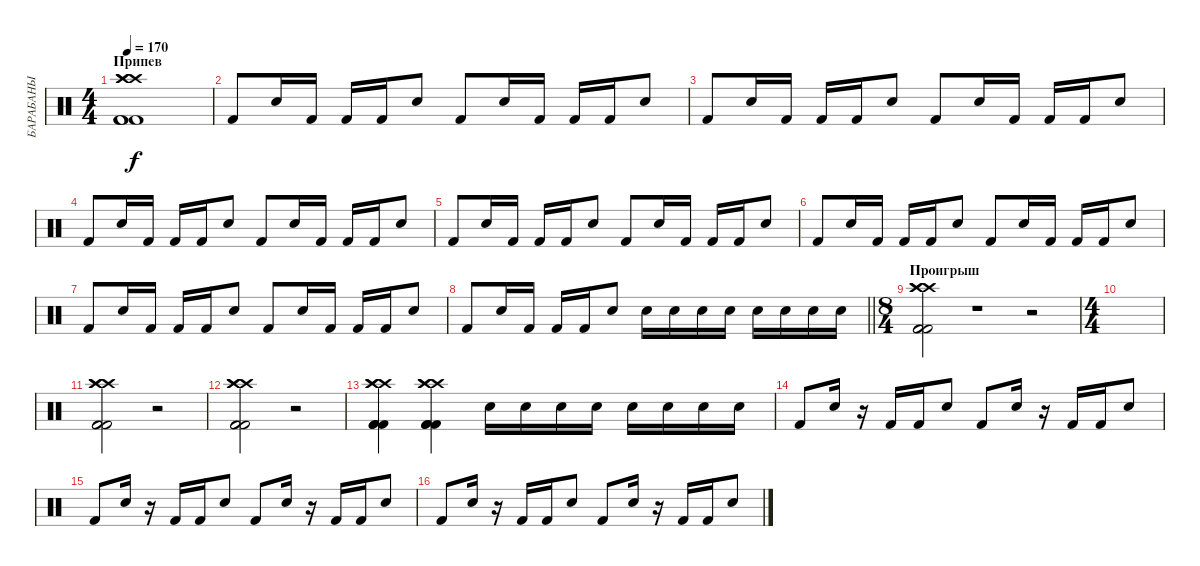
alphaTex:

\track ("БАРАБАНЫ" "БАРАБАНЫ") {instrument percussion}
\staff {score}
\articulation defaults
\ts (4 4)
\section ("" "Припев")
\tempo 170
\clef neutral
\ks c
("Kick (hit) 2" "Crash high (hit)" "Kick (hit) 2" "Crash high (hit)" "Kick (hit) 2" "Crash high (hit)").1{dy f} |
"Kick (hit) 2".8 "Electric Snare (hit)".16 "Kick (hit) 2".16 "Kick (hit) 2".16 "Kick (hit) 2".16 "Electric Snare (hit)".8 "Kick (hit) 2".8 "Electric Snare (hit)".16 "Kick (hit) 2".16 "Kick (hit) 2".16 "Kick (hit) 2".16 "Electric Snare (hit)".8 |
"Kick (hit) 2".8 "Electric Snare (hit)".16 "Kick (hit) 2".16 "Kick (hit) 2".16 "Kick (hit) 2".16 "Electric Snare (hit)".8 "Kick (hit) 2".8 "Electric Snare (hit)".16 "Kick (hit) 2".16 "Kick (hit) 2".16 "Kick (hit) 2".16 "Electric Snare (hit)".8 |
"Kick (hit) 2".8 "Electric Snare (hit)".16 "Kick (hit) 2".16 "Kick (hit) 2".16 "Kick (hit) 2".16 "Electric Snare (hit)".8 "Kick (hit) 2".8 "Electric Snare (hit)".16 "Kick (hit) 2".16 "Kick (hit) 2".16 "Kick (hit) 2".16 "Electric Snare (hit)".8 |
"Kick (hit) 2".8 "Electric Snare (hit)".16 "Kick (hit) 2".16 "Kick (hit) 2".16 "Kick (hit) 2".16 "Electric Snare (hit)".8 "Kick (hit) 2".8 "Electric Snare (hit)".16 "Kick (hit) 2".16 "Kick (hit) 2".16 "Kick (hit) 2".16 "Electric Snare (hit)".8 |
"Kick (hit) 2".8 "Electric Snare (hit)".16 "Kick (hit) 2".16 "Kick (hit) 2".16 "Kick (hit) 2".16 "Electric Snare (hit)".8 "Kick (hit) 2".8 "Electric Snare (hit)".16 "Kick (hit) 2".16 "Kick (hit) 2".16 "Kick (hit) 2".16 "Electric Snare (hit)".8 |
"Kick (hit) 2".8 "Electric Snare (hit)".16 "Kick (hit) 2".16 "Kick (hit) 2".16 "Kick (hit) 2".16 "Electric Snare (hit)".8 "Kick (hit) 2".8 "Electric Snare (hit)".16 "Kick (hit) 2".16 "Kick (hit) 2".16 "Kick (hit) 2".16 "Electric Snare (hit)".8 |
\barLineRight lightlight "Kick (hit) 2".8 "Electric Snare (hit)".16 "Kick (hit) 2".16 "Kick (hit) 2".16 "Kick (hit) 2".16 "Electric Snare (hit)".8 "Electric Snare (hit)".16 "Electric Snare (hit)".16 "Electric Snare (hit)".16 "Electric Snare (hit)".16 "Electric Snare (hit)".16 "Electric Snare (hit)".16 "Electric Snare (hit)".16 "Electric Snare (hit)".16
|
\ts (8 4)
\section ("" "Проигрыш")
("Crash high (hit)" "Kick (hit) 2" "Crash high (hit)" "Kick (hit) 2" "Crash high (hit)" "Kick (hit) 2").2 r.1 r.2 |
\ts (4 4)
|
("Crash high (hit)" "Kick (hit) 2" "Crash high (hit)" "Kick (hit) 2" "Crash high (hit)" "Kick (hit) 2").2 r.2 |
("Crash high (hit)" "Kick (hit) 2" "Crash high (hit)" "Kick (hit) 2" "Crash high (hit)" "Kick (hit) 2").2 r.2 |
("Crash high (hit)" "Kick (hit) 2" "Crash high (hit)" "Kick (hit) 2" "Crash high (hit)" "Kick (hit) 2").4 ("Crash high (hit)" "Kick (hit) 2" "Crash high (hit)" "Kick (hit) 2" "Crash high (hit)" "Kick (hit) 2").4 "Electric Snare (hit)".16 "Electric Snare (hit)".16 "Electric Snare (hit)".16 "Electric Snare (hit)".16 "Electric Snare (hit)".16 "Electric Snare (hit)".16 "Electric Snare (hit)".16 "Electric Snare (hit)".16 |
"Kick (hit) 2".8 "Electric Snare (hit)".16 r.16 "Kick (hit) 2".16 "Kick (hit) 2".16 "Electric Snare (hit)".8 "Kick (hit) 2".8 "Electric Snare (hit)".16 r.16 "Kick (hit) 2".16 "Kick (hit) 2".16 "Electric Snare (hit)".8 |
"Kick (hit) 2".8 "Electric Snare (hit)".16 r.16 "Kick (hit) 2".16 "Kick (hit) 2".16 "Electric Snare (hit)".8 "Kick (hit) 2".8 "Electric Snare (hit)".16 r.16 "Kick (hit) 2".16 "Kick (hit) 2".16 "Electric Snare (hit)".8 |
"Kick (hit) 2".8 "Electric Snare (hit)".16 r.16 "Kick (hit) 2".16 "Kick (hit) 2".16 "Electric Snare (hit)".8 "Kick (hit) 2".8 "Electric Snare (hit)".16 r.16 "Kick (hit) 2".16 "Kick (hit) 2".16 "Electric Snare (hit)".8
